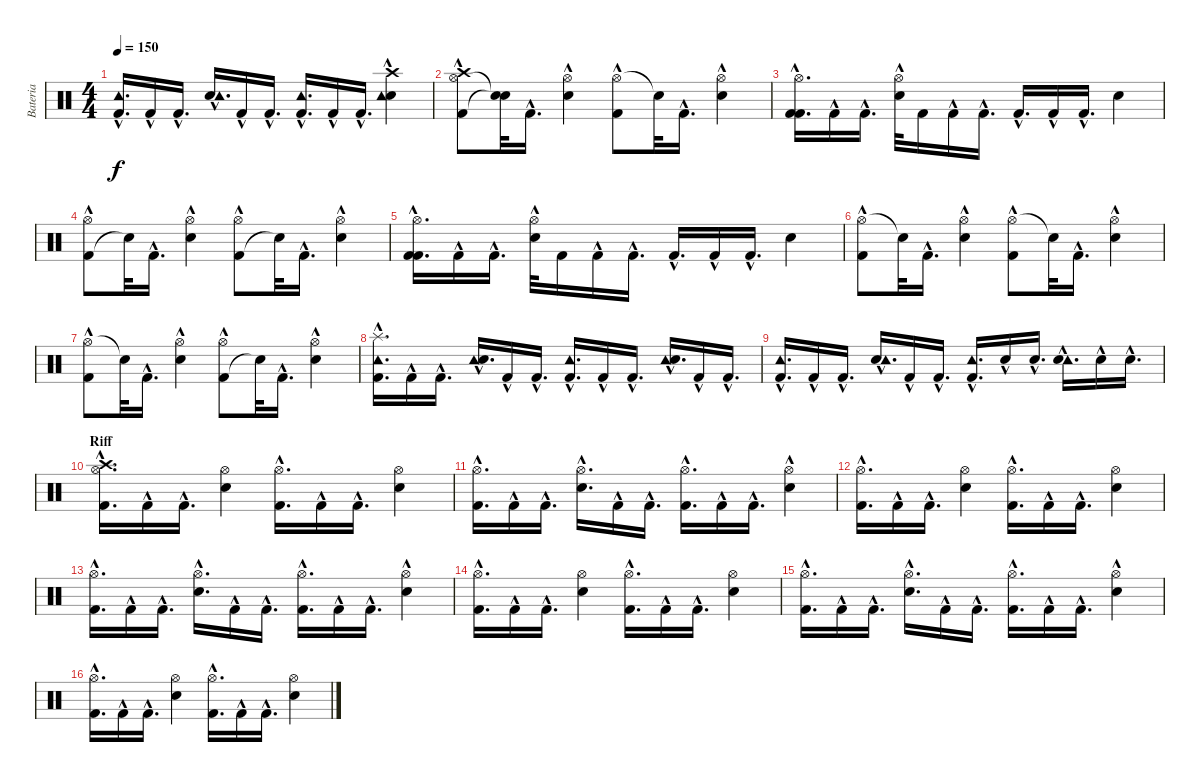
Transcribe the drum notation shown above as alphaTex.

\track ("Bateria" "Bateria") {instrument percussion}
\staff {score}
\articulation defaults
\ts (4 4)
\tempo 150
\clef neutral
\ks c
("Kick (hit) 2"{hac} "Tambourine (hit)").16{d dy f} "Kick (hit) 2"{hac}.16 "Kick (hit) 2"{hac}.16{d} ("Snare (hit) 2"{hac} "Tambourine (hit)").16{d} "Kick (hit) 2"{hac}.16 "Kick (hit) 2"{hac}.16{d} ("Kick (hit) 2"{hac} "Tambourine (hit)").16{d} "Kick (hit) 2"{hac}.16 "Kick (hit) 2"{hac}.16{d} ("Snare (hit) 2"{hac} "Tambourine (hit)" "Crash high (hit)").4 |
("Hi-Hat (open)" "Kick (hit) 2"{hac} "Crash high (hit)").8 ("Snare (hit)"{t} "Snare (hit)"{t}).32 "Kick (hit) 2"{hac}.16{d} ("Hi-Hat (open)" "Snare (hit) 2"{hac}).4 ("Hi-Hat (open)" "Kick (hit) 2"{hac}).8 "Snare (hit)"{t}.32 "Kick (hit) 2"{hac}.16{d} ("Hi-Hat (open)" "Snare (hit) 2"{hac}).4 |
("Hi-Hat (open)" "Kick (hit) 2"{hac} "Kick (hit) 2"{hac}).16{d} "Kick (hit) 2"{hac}.16 "Kick (hit) 2"{hac}.16{d} ("Snare (hit) 2"{hac} "Hi-Hat (open)").32 "Kick (hit) 2".16 "Kick (hit) 2"{hac}.16 "Kick (hit) 2"{hac}.16{d} "Kick (hit) 2"{hac}.16{d} "Kick (hit) 2"{hac}.16 "Kick (hit) 2"{hac}.16{d} "Snare (hit) 2".4 |
("Kick (hit) 2"{hac} "Hi-Hat (open)").8 "Snare (hit)"{t}.32 "Kick (hit) 2"{hac}.16{d} ("Snare (hit) 2"{hac} "Hi-Hat (open)").4 ("Kick (hit) 2"{hac} "Hi-Hat (open)").8 "Snare (hit)"{t}.32 "Kick (hit) 2"{hac}.16{d} ("Snare (hit) 2"{hac} "Hi-Hat (open)").4 |
("Kick (hit) 2"{hac} "Hi-Hat (open)" "Kick (hit) 2"{hac}).16{d} "Kick (hit) 2"{hac}.16 "Kick (hit) 2"{hac}.16{d} ("Snare (hit) 2"{hac} "Hi-Hat (open)").32 "Kick (hit) 2".16 "Kick (hit) 2"{hac}.16 "Kick (hit) 2"{hac}.16{d} "Kick (hit) 2"{hac}.16{d} "Kick (hit) 2"{hac}.16 "Kick (hit) 2"{hac}.16{d} "Snare (hit) 2".4 |
("Hi-Hat (open)" "Kick (hit) 2"{hac}).8 "Snare (hit)"{t}.32 "Kick (hit) 2"{hac}.16{d} ("Hi-Hat (open)" "Snare (hit) 2"{hac}).4 ("Hi-Hat (open)" "Kick (hit) 2"{hac}).8 "Snare (hit)"{t}.32 "Kick (hit) 2"{hac}.16{d} ("Hi-Hat (open)" "Snare (hit) 2"{hac}).4 |
("Hi-Hat (open)" "Kick (hit) 2"{hac}).8 "Snare (hit)"{t}.32 "Kick (hit) 2"{hac}.16{d} ("Hi-Hat (open)" "Snare (hit) 2"{hac}).4 ("Kick (hit) 2"{hac} "Hi-Hat (open)").8 "Snare (hit)"{t}.32 "Kick (hit) 2"{hac}.16{d} ("Snare (hit) 2"{hac} "Hi-Hat (open)").4 |
("Splash (hit)" "Kick (hit) 2"{hac} "Tambourine (hit)").16{d} "Kick (hit) 2"{hac}.16 "Kick (hit) 2"{hac}.16{d} ("Tambourine (hit)" "Snare (hit) 2"{hac}).16{d} "Kick (hit) 2"{hac}.16 "Kick (hit) 2"{hac}.16{d} ("Tambourine (hit)" "Kick (hit) 2"{hac}).16{d} "Kick (hit) 2"{hac}.16 "Kick (hit) 2"{hac}.16{d} ("Tambourine (hit)" "Snare (hit) 2"{hac}).16{d} "Kick (hit) 2"{hac}.16 "Kick (hit) 2"{hac}.16{d} |
("Kick (hit) 2"{hac} "Tambourine (hit)").16{d} "Kick (hit) 2"{hac}.16 "Kick (hit) 2"{hac}.16{d} ("Snare (hit) 2"{hac} "Tambourine (hit)").16{d} "Kick (hit) 2"{hac}.16 "Kick (hit) 2"{hac}.16{d} ("Kick (hit) 2"{hac} "Tambourine (hit)").16{d} "Snare (hit) 2"{hac}.16 "Snare (hit) 2"{hac}.16{d} ("Tambourine (hit)" "Snare (hit) 2"{hac}).16{d} "Snare (hit) 2"{hac}.16 "Snare (hit) 2"{hac}.16{d} |
\section ("" "Riff")
("Kick (hit) 2"{hac} "Hi-Hat (open)" "Crash high (hit)").16{d} "Kick (hit) 2"{hac}.16 "Kick (hit) 2"{hac}.16{d} ("Snare (hit) 2" "Hi-Hat (open)").4 ("Kick (hit) 2"{hac} "Hi-Hat (open)").16{d} "Kick (hit) 2"{hac}.16 "Kick (hit) 2"{hac}.16{d} ("Snare (hit) 2" "Hi-Hat (open)").4 |
("Kick (hit) 2"{hac} "Hi-Hat (open)").16{d} "Kick (hit) 2"{hac}.16 "Kick (hit) 2"{hac}.16{d} ("Hi-Hat (open)" "Snare (hit) 2"{hac}).16{d} "Kick (hit) 2"{hac}.16 "Kick (hit) 2"{hac}.16{d} ("Kick (hit) 2"{hac} "Hi-Hat (open)").16{d} "Kick (hit) 2"{hac}.16 "Kick (hit) 2"{hac}.16{d} ("Electric Snare (hit)"{hac} "Hi-Hat (open)").4 |
("Kick (hit) 2"{hac} "Hi-Hat (open)").16{d} "Kick (hit) 2"{hac}.16 "Kick (hit) 2"{hac}.16{d} ("Snare (hit) 2" "Hi-Hat (open)").4 ("Kick (hit) 2"{hac} "Hi-Hat (open)").16{d} "Kick (hit) 2"{hac}.16 "Kick (hit) 2"{hac}.16{d} ("Hi-Hat (open)" "Snare (hit) 2").4 |
("Hi-Hat (open)" "Kick (hit) 2"{hac}).16{d} "Kick (hit) 2"{hac}.16 "Kick (hit) 2"{hac}.16{d} ("Hi-Hat (open)" "Snare (hit) 2"{hac}).16{d} "Kick (hit) 2"{hac}.16 "Kick (hit) 2"{hac}.16{d} ("Kick (hit) 2"{hac} "Hi-Hat (open)").16{d} "Kick (hit) 2"{hac}.16 "Kick (hit) 2"{hac}.16{d} ("Hi-Hat (open)" "Electric Snare (hit)"{hac}).4 |
("Hi-Hat (open)" "Kick (hit) 2"{hac}).16{d} "Kick (hit) 2"{hac}.16 "Kick (hit) 2"{hac}.16{d} ("Snare (hit) 2" "Hi-Hat (open)").4 ("Hi-Hat (open)" "Kick (hit) 2"{hac}).16{d} "Kick (hit) 2"{hac}.16 "Kick (hit) 2"{hac}.16{d} ("Snare (hit) 2" "Hi-Hat (open)").4 |
("Hi-Hat (open)" "Kick (hit) 2"{hac}).16{d} "Kick (hit) 2"{hac}.16 "Kick (hit) 2"{hac}.16{d} ("Snare (hit) 2"{hac} "Hi-Hat (open)").16{d} "Kick (hit) 2"{hac}.16 "Kick (hit) 2"{hac}.16{d} ("Kick (hit) 2"{hac} "Hi-Hat (open)").16{d} "Kick (hit) 2"{hac}.16 "Kick (hit) 2"{hac}.16{d} ("Electric Snare (hit)"{hac} "Hi-Hat (open)").4 |
("Kick (hit) 2"{hac} "Hi-Hat (open)").16{d} "Kick (hit) 2"{hac}.16 "Kick (hit) 2"{hac}.16{d} ("Snare (hit) 2" "Hi-Hat (open)").4 ("Kick (hit) 2"{hac} "Hi-Hat (open)").16{d} "Kick (hit) 2"{hac}.16 "Kick (hit) 2"{hac}.16{d} ("Snare (hit) 2" "Hi-Hat (open)").4
